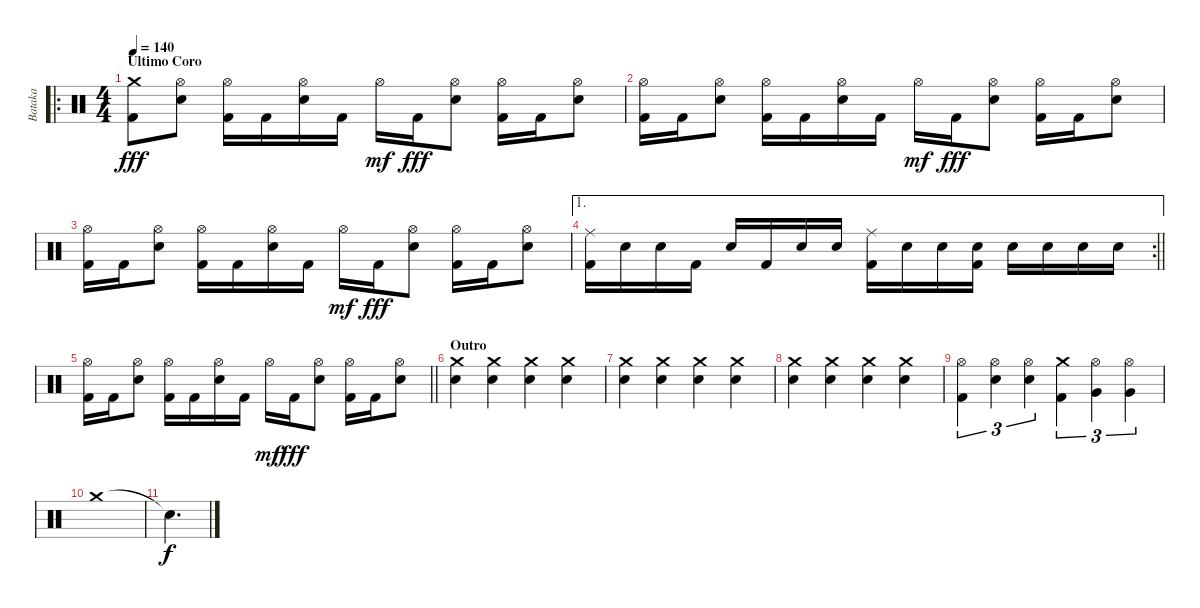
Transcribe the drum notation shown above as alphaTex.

\track ("Bataka" "Bataka") {instrument percussion}
\staff {score}
\articulation defaults
\ro
\ts (4 4)
\section ("" "Último Coro")
\tempo 140
\clef neutral
\ks c
("Crash medium (hit)" "Kick (hit) 2").8{dy fff} ("Hi-Hat (open)" "Electric Snare (hit)").8 ("Hi-Hat (open)" "Kick (hit) 2").16 "Kick (hit) 2".16 ("Hi-Hat (open)" "Electric Snare (hit)").16 "Kick (hit) 2".16 "Hi-Hat (open)".16{dy mf} "Kick (hit) 2".16{dy fff} ("Hi-Hat (open)" "Electric Snare (hit)").8 ("Hi-Hat (open)" "Kick (hit) 2").16 "Kick (hit) 2".16 ("Hi-Hat (open)" "Electric Snare (hit)").8 |
("Hi-Hat (open)" "Kick (hit) 2").16 "Kick (hit) 2".16 ("Hi-Hat (open)" "Electric Snare (hit)").8 ("Hi-Hat (open)" "Kick (hit) 2").16 "Kick (hit) 2".16 ("Hi-Hat (open)" "Electric Snare (hit)").16 "Kick (hit) 2".16 "Hi-Hat (open)".16{dy mf} "Kick (hit) 2".16{dy fff} ("Hi-Hat (open)" "Electric Snare (hit)").8 ("Hi-Hat (open)" "Kick (hit) 2").16 "Kick (hit) 2".16 ("Hi-Hat (open)" "Electric Snare (hit)").8 |
("Hi-Hat (open)" "Kick (hit) 2").16 "Kick (hit) 2".16 ("Hi-Hat (open)" "Electric Snare (hit)").8 ("Hi-Hat (open)" "Kick (hit) 2").16 "Kick (hit) 2".16 ("Hi-Hat (open)" "Electric Snare (hit)").16 "Kick (hit) 2".16 "Hi-Hat (open)".16{dy mf} "Kick (hit) 2".16{dy fff} ("Hi-Hat (open)" "Electric Snare (hit)").8 ("Hi-Hat (open)" "Kick (hit) 2").16 "Kick (hit) 2".16 ("Hi-Hat (open)" "Electric Snare (hit)").8 |
\ae 1
\rc 2
\barLineRight lightlight
("Ride (middle)" "Kick (hit) 2").16 "Electric Snare (hit)".16 "Electric Snare (hit)".16 "Kick (hit) 2".16 "Electric Snare (hit)".16 "Kick (hit) 2".16 "Electric Snare (hit)".16 "Electric Snare (hit)".16 ("Ride (middle)" "Kick (hit) 2").16 "Electric Snare (hit)".16 "Electric Snare (hit)".16 ("Electric Snare (hit)" "Kick (hit) 2").16 "Electric Snare (hit)".16 "Electric Snare (hit)".16 "Electric Snare (hit)".16 "Electric Snare (hit)".16 |
\barLineRight lightlight
("Hi-Hat (open)" "Kick (hit) 2").16 "Kick (hit) 2".16 ("Hi-Hat (open)" "Electric Snare (hit)").8 ("Hi-Hat (open)" "Kick (hit) 2").16 "Kick (hit) 2".16 ("Hi-Hat (open)" "Electric Snare (hit)").16 "Kick (hit) 2".16 "Hi-Hat (open)".16{dy mf} "Kick (hit) 2".16{dy fff} ("Hi-Hat (open)" "Electric Snare (hit)").8 ("Hi-Hat (open)" "Kick (hit) 2").16 "Kick (hit) 2".16 ("Hi-Hat (open)" "Electric Snare (hit)").8 |
\section ("" "Outro")
("Crash medium (hit)" "Electric Snare (hit)").4 ("Crash medium (hit)" "Electric Snare (hit)").4 ("Crash medium (hit)" "Electric Snare (hit)").4 ("Crash medium (hit)" "Electric Snare (hit)").4 |
("Crash medium (hit)" "Electric Snare (hit)").4 ("Crash medium (hit)" "Electric Snare (hit)").4 ("Crash medium (hit)" "Electric Snare (hit)").4 ("Crash medium (hit)" "Electric Snare (hit)").4 |
("Crash medium (hit)" "Electric Snare (hit)").4 ("Crash medium (hit)" "Electric Snare (hit)").4 ("Crash medium (hit)" "Electric Snare (hit)").4 ("Crash medium (hit)" "Electric Snare (hit)").4 |
("Hi-Hat (open)" "Kick (hit) 2").4{tu (3 2)} ("Hi-Hat (open)" "Electric Snare (hit)").4{tu (3 2)} ("Hi-Hat (open)" "Electric Snare (hit)").4{tu (3 2)} ("Crash medium (hit)" "Kick (hit) 2").4{tu (3 2)} ("Hi-Hat (open)" "Very Low Tom (hit)").4{tu (3 2)} ("Hi-Hat (open)" "Very Low Tom (hit)").4{tu (3 2)} |
"Crash medium (hit)".1 |
"Snare (hit)"{t}.4{d dy f}
